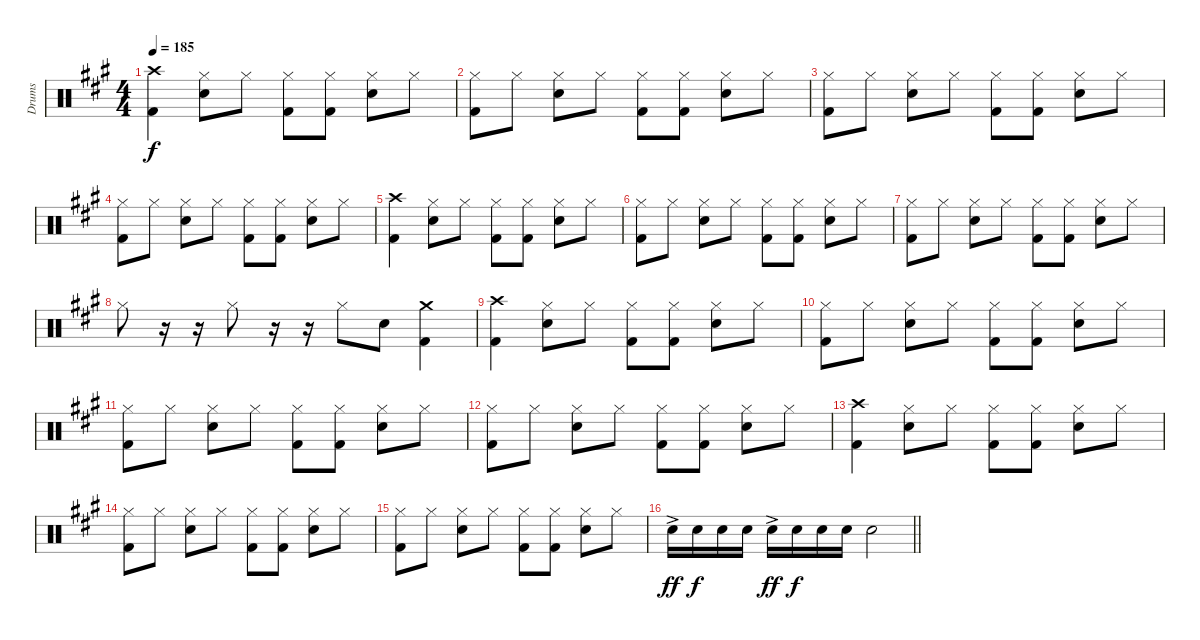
\track ("Drums" "Drums") {instrument percussion}
\staff {score}
\articulation defaults
\ts (4 4)
\tempo 185
\clef neutral
\ks f#minor
("Crash high (hit)" "Kick (hit) 2").4{dy f} ("Hi-Hat (closed)" "Electric Snare (hit)").8 "Hi-Hat (closed)".8 ("Hi-Hat (closed)" "Kick (hit) 2").8 ("Hi-Hat (closed)" "Kick (hit) 2").8 ("Hi-Hat (closed)" "Electric Snare (hit)").8 "Hi-Hat (closed)".8 |
("Hi-Hat (closed)" "Kick (hit) 2").8 "Hi-Hat (closed)".8 ("Hi-Hat (closed)" "Electric Snare (hit)").8 "Hi-Hat (closed)".8 ("Hi-Hat (closed)" "Kick (hit) 2").8 ("Hi-Hat (closed)" "Kick (hit) 2").8 ("Hi-Hat (closed)" "Electric Snare (hit)").8 "Hi-Hat (closed)".8 |
("Hi-Hat (closed)" "Kick (hit) 2").8 "Hi-Hat (closed)".8 ("Hi-Hat (closed)" "Electric Snare (hit)").8 "Hi-Hat (closed)".8 ("Hi-Hat (closed)" "Kick (hit) 2").8 ("Hi-Hat (closed)" "Kick (hit) 2").8 ("Hi-Hat (closed)" "Electric Snare (hit)").8 "Hi-Hat (closed)".8 |
("Hi-Hat (closed)" "Kick (hit) 2").8 "Hi-Hat (closed)".8 ("Hi-Hat (closed)" "Electric Snare (hit)").8 "Hi-Hat (closed)".8 ("Hi-Hat (closed)" "Kick (hit) 2").8 ("Hi-Hat (closed)" "Kick (hit) 2").8 ("Hi-Hat (closed)" "Electric Snare (hit)").8 "Hi-Hat (closed)".8 |
("Crash high (hit)" "Kick (hit) 2").4 ("Hi-Hat (closed)" "Electric Snare (hit)").8 "Hi-Hat (closed)".8 ("Hi-Hat (closed)" "Kick (hit) 2").8 ("Hi-Hat (closed)" "Kick (hit) 2").8 ("Hi-Hat (closed)" "Electric Snare (hit)").8 "Hi-Hat (closed)".8 |
("Hi-Hat (closed)" "Kick (hit) 2").8 "Hi-Hat (closed)".8 ("Hi-Hat (closed)" "Electric Snare (hit)").8 "Hi-Hat (closed)".8 ("Hi-Hat (closed)" "Kick (hit) 2").8 ("Hi-Hat (closed)" "Kick (hit) 2").8 ("Hi-Hat (closed)" "Electric Snare (hit)").8 "Hi-Hat (closed)".8 |
("Hi-Hat (closed)" "Kick (hit) 2").8 "Hi-Hat (closed)".8 ("Hi-Hat (closed)" "Electric Snare (hit)").8 "Hi-Hat (closed)".8 ("Hi-Hat (closed)" "Kick (hit) 2").8 ("Hi-Hat (closed)" "Kick (hit) 2").8 ("Hi-Hat (closed)" "Electric Snare (hit)").8 "Hi-Hat (closed)".8 |
"Hi-Hat (closed)".8 r.16 r.16 "Hi-Hat (closed)".8 r.16 r.16 "Hi-Hat (closed)".8 "Electric Snare (hit)".8 ("Crash medium (hit)" "Kick (hit) 2").4 |
("Crash high (hit)" "Kick (hit) 2").4 ("Hi-Hat (closed)" "Electric Snare (hit)").8 "Hi-Hat (closed)".8 ("Hi-Hat (closed)" "Kick (hit) 2").8 ("Hi-Hat (closed)" "Kick (hit) 2").8 ("Hi-Hat (closed)" "Electric Snare (hit)").8 "Hi-Hat (closed)".8 |
("Hi-Hat (closed)" "Kick (hit) 2").8 "Hi-Hat (closed)".8 ("Hi-Hat (closed)" "Electric Snare (hit)").8 "Hi-Hat (closed)".8 ("Hi-Hat (closed)" "Kick (hit) 2").8 ("Hi-Hat (closed)" "Kick (hit) 2").8 ("Hi-Hat (closed)" "Electric Snare (hit)").8 "Hi-Hat (closed)".8 |
("Hi-Hat (closed)" "Kick (hit) 2").8 "Hi-Hat (closed)".8 ("Hi-Hat (closed)" "Electric Snare (hit)").8 "Hi-Hat (closed)".8 ("Hi-Hat (closed)" "Kick (hit) 2").8 ("Hi-Hat (closed)" "Kick (hit) 2").8 ("Hi-Hat (closed)" "Electric Snare (hit)").8 "Hi-Hat (closed)".8 |
("Hi-Hat (closed)" "Kick (hit) 2").8 "Hi-Hat (closed)".8 ("Hi-Hat (closed)" "Electric Snare (hit)").8 "Hi-Hat (closed)".8 ("Hi-Hat (closed)" "Kick (hit) 2").8 ("Hi-Hat (closed)" "Kick (hit) 2").8 ("Hi-Hat (closed)" "Electric Snare (hit)").8 "Hi-Hat (closed)".8 |
("Crash high (hit)" "Kick (hit) 2").4 ("Hi-Hat (closed)" "Electric Snare (hit)").8 "Hi-Hat (closed)".8 ("Hi-Hat (closed)" "Kick (hit) 2").8 ("Hi-Hat (closed)" "Kick (hit) 2").8 ("Hi-Hat (closed)" "Electric Snare (hit)").8 "Hi-Hat (closed)".8 |
("Hi-Hat (closed)" "Kick (hit) 2").8 "Hi-Hat (closed)".8 ("Hi-Hat (closed)" "Electric Snare (hit)").8 "Hi-Hat (closed)".8 ("Hi-Hat (closed)" "Kick (hit) 2").8 ("Hi-Hat (closed)" "Kick (hit) 2").8 ("Hi-Hat (closed)" "Electric Snare (hit)").8 "Hi-Hat (closed)".8 |
("Hi-Hat (closed)" "Kick (hit) 2").8 "Hi-Hat (closed)".8 ("Hi-Hat (closed)" "Electric Snare (hit)").8 "Hi-Hat (closed)".8 ("Hi-Hat (closed)" "Kick (hit) 2").8 ("Hi-Hat (closed)" "Kick (hit) 2").8 ("Hi-Hat (closed)" "Electric Snare (hit)").8 "Hi-Hat (closed)".8 |
\barLineRight lightlight "Electric Snare (hit)"{ac}.16{dy ff} "Electric Snare (hit)".16{dy f} "Electric Snare (hit)".16 "Electric Snare (hit)".16 "Electric Snare (hit)"{ac}.16{dy ff} "Electric Snare (hit)".16{dy f} "Electric Snare (hit)".16 "Electric Snare (hit)".16 "Electric Snare (hit)".2
